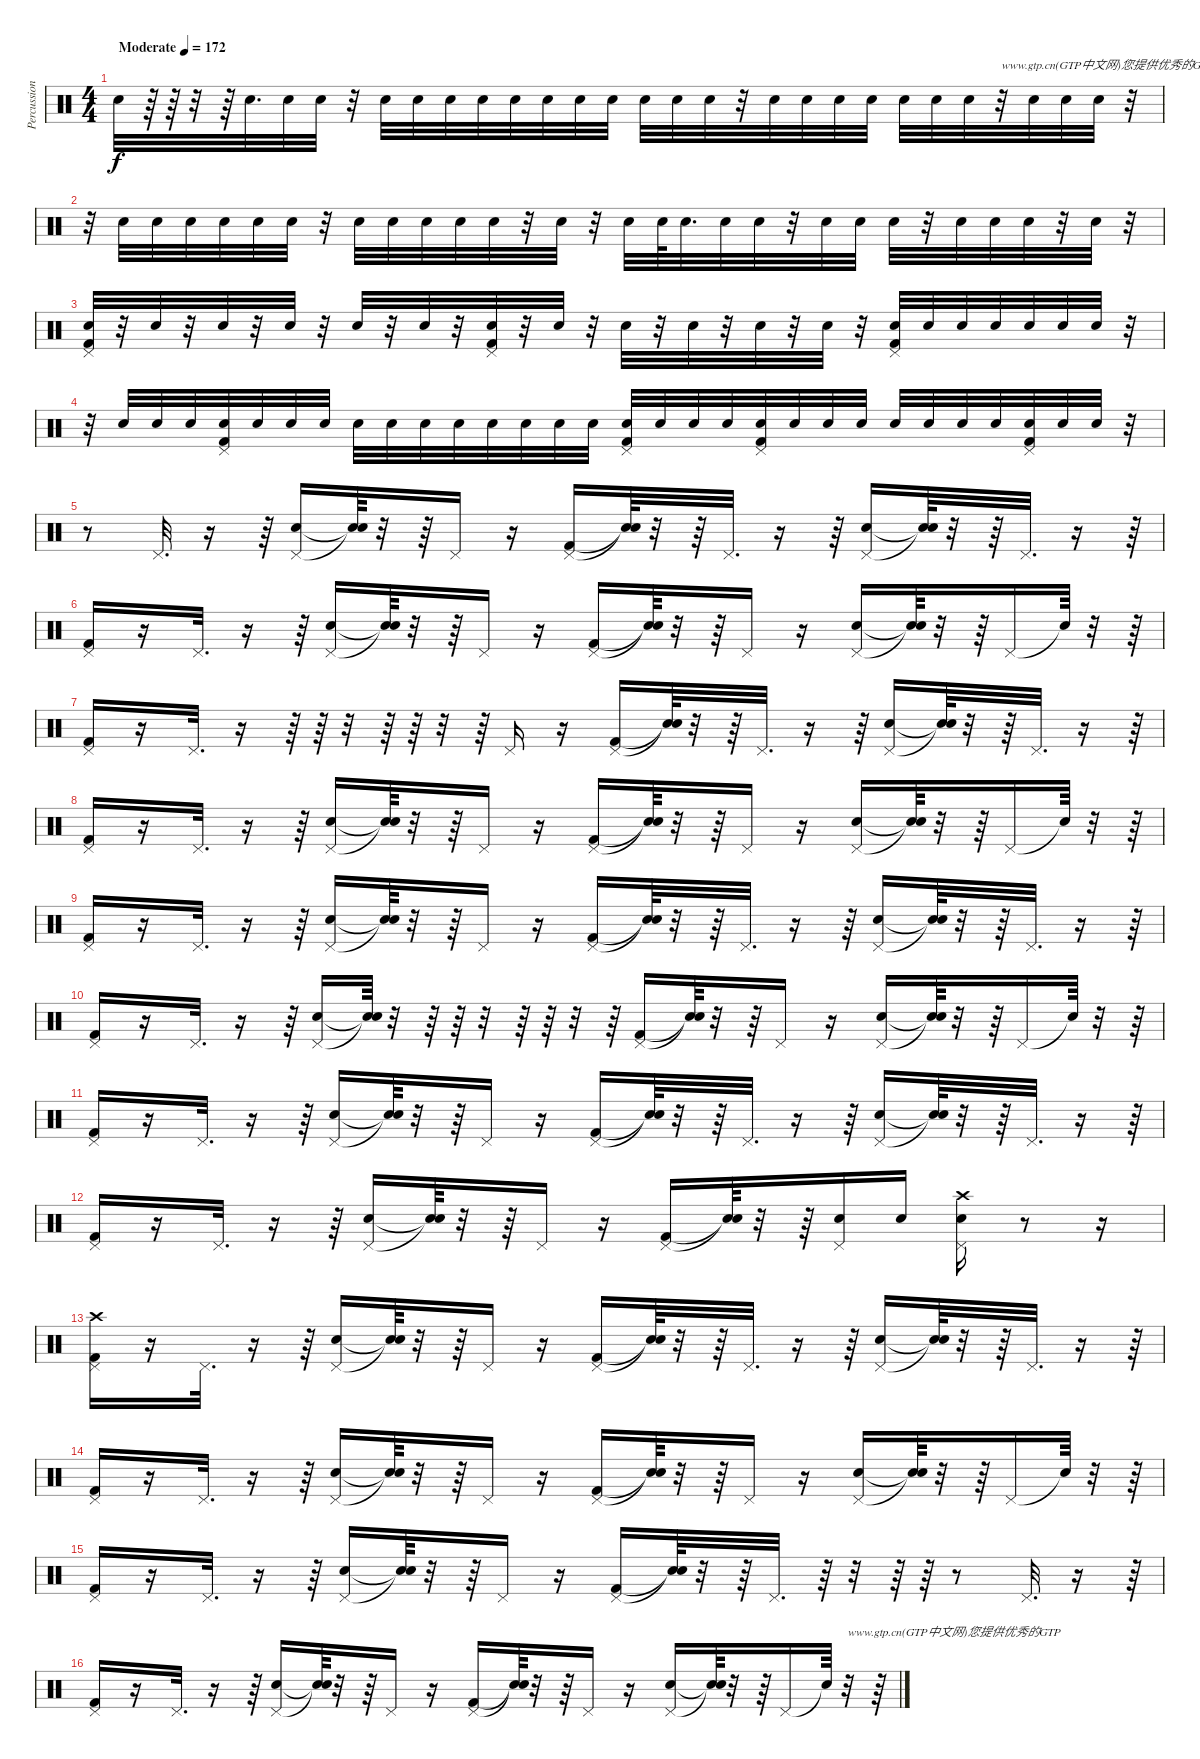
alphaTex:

\track ("Percussions" "Percussion") {instrument percussion}
\staff {score}
\articulation defaults
\ts (4 4)
\tempo (172 "Moderate")
\clef neutral
\ks c "Snare (hit) 2".32{dy f}
r.64 r.64 r.32 r.64 "Snare (hit) 2".32{d} "Snare (hit) 2".32 "Snare (hit) 2".32 r.32 "Snare (hit) 2".32 "Snare (hit) 2".32 "Snare (hit) 2".32 "Snare (hit) 2".32 "Snare (hit) 2".32 "Snare (hit) 2".32 "Snare (hit) 2".32 "Snare (hit) 2".32 "Snare (hit) 2".32 "Snare (hit) 2".32 "Snare (hit) 2".32 r.32 "Snare (hit) 2".32 "Snare (hit) 2".32 "Snare (hit) 2".32 "Snare (hit) 2".32 "Snare (hit) 2".32 "Snare (hit) 2".32 "Snare (hit) 2".32 r.32{txt "www.gtp.cn(GTP中文网)您提供优秀的GTP"} "Snare (hit) 2".32 "Snare (hit) 2".32 "Snare (hit) 2".32 r.32 |
r.32 "Snare (hit) 2".32 "Snare (hit) 2".32 "Snare (hit) 2".32 "Snare (hit) 2".32 "Snare (hit) 2".32 "Snare (hit) 2".32 r.32 "Snare (hit) 2".32 "Snare (hit) 2".32 "Snare (hit) 2".32 "Snare (hit) 2".32 "Snare (hit) 2".32 r.32 "Snare (hit) 2".32 r.32 "Snare (hit) 2".32 "Snare (hit) 2".64 "Snare (hit) 2".32{d} "Snare (hit) 2".32 "Snare (hit) 2".32 r.32 "Snare (hit) 2".32 "Snare (hit) 2".32 "Snare (hit) 2".32 r.32 "Snare (hit) 2".32 "Snare (hit) 2".32 "Snare (hit) 2".32 r.32 "Snare (hit) 2".32 r.32 |
("Snare (hit) 2" "Kick (hit) 2" "Pedal Hi-Hat (hit)").32 r.32 "Snare (hit) 2".32 r.32 "Snare (hit) 2".32 r.32 "Snare (hit) 2".32 r.32 "Snare (hit) 2".32 r.32 "Snare (hit) 2".32 r.32 ("Snare (hit) 2" "Kick (hit) 2" "Pedal Hi-Hat (hit)").32 r.32 "Snare (hit) 2".32 r.32 "Snare (hit) 2".32 r.32 "Snare (hit) 2".32 r.32 "Snare (hit) 2".32 r.32 "Snare (hit) 2".32 r.32 ("Snare (hit) 2" "Kick (hit) 2" "Pedal Hi-Hat (hit)").32 "Snare (hit) 2".32 "Snare (hit) 2".32 "Snare (hit) 2".32 "Snare (hit) 2".32 "Snare (hit) 2".32 "Snare (hit) 2".32 r.32 |
r.32 "Snare (hit) 2".32 "Snare (hit) 2".32 "Snare (hit) 2".32 ("Snare (hit) 2" "Kick (hit) 2" "Pedal Hi-Hat (hit)").32 "Snare (hit) 2".32 "Snare (hit) 2".32 "Snare (hit) 2".32 "Snare (hit) 2".32 "Snare (hit) 2".32 "Snare (hit) 2".32 "Snare (hit) 2".32 "Snare (hit) 2".32 "Snare (hit) 2".32 "Snare (hit) 2".32 "Snare (hit) 2".32 ("Snare (hit) 2" "Kick (hit) 2" "Pedal Hi-Hat (hit)").32 "Snare (hit) 2".32 "Snare (hit) 2".32 "Snare (hit) 2".32 ("Snare (hit) 2" "Kick (hit) 2" "Pedal Hi-Hat (hit)").32 "Snare (hit) 2".32 "Snare (hit) 2".32 "Snare (hit) 2".32 "Snare (hit) 2".32 "Snare (hit) 2".32 "Snare (hit) 2".32 "Snare (hit) 2".32 ("Snare (hit) 2" "Pedal Hi-Hat (hit)" "Kick (hit) 2").32 "Snare (hit) 2".32 "Snare (hit) 2".32 r.32 |
r.8 "Pedal Hi-Hat (hit)".32{d} r.16 r.64 ("Pedal Hi-Hat (hit)" "Snare (hit) 2").16 ("Snare (hit)"{t} "Snare (hit)"{t}).64 r.32 r.64 "Pedal Hi-Hat (hit)".16 r.16 ("Pedal Hi-Hat (hit)" "Kick (hit) 2").16 ("Snare (hit)"{t} "Snare (hit)"{t}).64 r.32 r.64 "Pedal Hi-Hat (hit)".32{d} r.16 r.64 ("Pedal Hi-Hat (hit)" "Snare (hit) 2").16 ("Snare (hit)"{t} "Snare (hit)"{t}).64 r.32 r.64 "Pedal Hi-Hat (hit)".32{d} r.16 r.64 |
("Pedal Hi-Hat (hit)" "Kick (hit) 2").16 r.16 "Pedal Hi-Hat (hit)".32{d} r.16 r.64 ("Pedal Hi-Hat (hit)" "Snare (hit) 2").16 ("Snare (hit)"{t} "Snare (hit)"{t}).64 r.32 r.64 "Pedal Hi-Hat (hit)".16 r.16 ("Pedal Hi-Hat (hit)" "Kick (hit) 2").16 ("Snare (hit)"{t} "Snare (hit)"{t}).64 r.32 r.64 "Pedal Hi-Hat (hit)".16 r.16 ("Pedal Hi-Hat (hit)" "Snare (hit) 2").16 ("Snare (hit)"{t} "Snare (hit)"{t}).64 r.32 r.64 "Pedal Hi-Hat (hit)".16 "Snare (hit)"{t}.64 r.32 r.64 |
("Pedal Hi-Hat (hit)" "Kick (hit) 2").16 r.16 "Pedal Hi-Hat (hit)".32{d} r.16 r.64 r.64 r.32 r.64 r.64 r.32 r.64 "Pedal Hi-Hat (hit)".16 r.16 ("Pedal Hi-Hat (hit)" "Kick (hit) 2").16 ("Snare (hit)"{t} "Snare (hit)"{t}).64 r.32 r.64 "Pedal Hi-Hat (hit)".32{d} r.16 r.64 ("Pedal Hi-Hat (hit)" "Snare (hit) 2").16 ("Snare (hit)"{t} "Snare (hit)"{t}).64 r.32 r.64 "Pedal Hi-Hat (hit)".32{d} r.16 r.64 |
("Pedal Hi-Hat (hit)" "Kick (hit) 2").16 r.16 "Pedal Hi-Hat (hit)".32{d} r.16 r.64 ("Pedal Hi-Hat (hit)" "Snare (hit) 2").16 ("Snare (hit)"{t} "Snare (hit)"{t}).64 r.32 r.64 "Pedal Hi-Hat (hit)".16 r.16 ("Pedal Hi-Hat (hit)" "Kick (hit) 2").16 ("Snare (hit)"{t} "Snare (hit)"{t}).64 r.32 r.64 "Pedal Hi-Hat (hit)".16 r.16 ("Pedal Hi-Hat (hit)" "Snare (hit) 2").16 ("Snare (hit)"{t} "Snare (hit)"{t}).64 r.32 r.64 "Pedal Hi-Hat (hit)".16 "Snare (hit)"{t}.64 r.32 r.64 |
("Pedal Hi-Hat (hit)" "Kick (hit) 2").16 r.16 "Pedal Hi-Hat (hit)".32{d} r.16 r.64 ("Pedal Hi-Hat (hit)" "Snare (hit) 2").16 ("Snare (hit)"{t} "Snare (hit)"{t}).64 r.32 r.64 "Pedal Hi-Hat (hit)".16 r.16 ("Pedal Hi-Hat (hit)" "Kick (hit) 2").16 ("Snare (hit)"{t} "Snare (hit)"{t}).64 r.32 r.64 "Pedal Hi-Hat (hit)".32{d} r.16 r.64 ("Pedal Hi-Hat (hit)" "Snare (hit) 2").16 ("Snare (hit)"{t} "Snare (hit)"{t}).64 r.32 r.64 "Pedal Hi-Hat (hit)".32{d} r.16 r.64 |
("Pedal Hi-Hat (hit)" "Kick (hit) 2").16 r.16 "Pedal Hi-Hat (hit)".32{d} r.16 r.64 ("Pedal Hi-Hat (hit)" "Snare (hit) 2").16 ("Snare (hit)"{t} "Snare (hit)"{t}).64 r.32 r.64 r.64 r.32 r.64 r.64 r.32 r.64 ("Pedal Hi-Hat (hit)" "Kick (hit) 2").16 ("Snare (hit)"{t} "Snare (hit)"{t}).64 r.32 r.64 "Pedal Hi-Hat (hit)".16 r.16 ("Pedal Hi-Hat (hit)" "Snare (hit) 2").16 ("Snare (hit)"{t} "Snare (hit)"{t}).64 r.32 r.64 "Pedal Hi-Hat (hit)".16 "Snare (hit)"{t}.64 r.32 r.64 |
("Pedal Hi-Hat (hit)" "Kick (hit) 2").16 r.16 "Pedal Hi-Hat (hit)".32{d} r.16 r.64 ("Pedal Hi-Hat (hit)" "Snare (hit) 2").16 ("Snare (hit)"{t} "Snare (hit)"{t}).64 r.32 r.64 "Pedal Hi-Hat (hit)".16 r.16 ("Pedal Hi-Hat (hit)" "Kick (hit) 2").16 ("Snare (hit)"{t} "Snare (hit)"{t}).64 r.32 r.64 "Pedal Hi-Hat (hit)".32{d} r.16 r.64 ("Pedal Hi-Hat (hit)" "Snare (hit) 2").16 ("Snare (hit)"{t} "Snare (hit)"{t}).64 r.32 r.64 "Pedal Hi-Hat (hit)".32{d} r.16 r.64 |
("Pedal Hi-Hat (hit)" "Kick (hit) 2").16 r.16 "Pedal Hi-Hat (hit)".32{d} r.16 r.64 ("Pedal Hi-Hat (hit)" "Snare (hit) 2").16 ("Snare (hit)"{t} "Snare (hit)"{t}).64 r.32 r.64 "Pedal Hi-Hat (hit)".16 r.16 ("Pedal Hi-Hat (hit)" "Kick (hit) 2").16 ("Snare (hit)"{t} "Snare (hit)"{t}).64 r.32 r.64 ("Pedal Hi-Hat (hit)" "Snare (hit) 2").16 "Snare (hit) 2".16 ("Crash high (hit)" "Pedal Hi-Hat (hit)" "Snare (hit) 2").16 r.8 r.16 |
("Pedal Hi-Hat (hit)" "Crash high (hit)" "Kick (hit) 2").16 r.16 "Pedal Hi-Hat (hit)".32{d} r.16 r.64 ("Pedal Hi-Hat (hit)" "Snare (hit) 2").16 ("Snare (hit)"{t} "Snare (hit)"{t}).64 r.32 r.64 "Pedal Hi-Hat (hit)".16 r.16 ("Pedal Hi-Hat (hit)" "Kick (hit) 2").16 ("Snare (hit)"{t} "Snare (hit)"{t}).64 r.32 r.64 "Pedal Hi-Hat (hit)".32{d} r.16 r.64 ("Pedal Hi-Hat (hit)" "Snare (hit) 2").16 ("Snare (hit)"{t} "Snare (hit)"{t}).64 r.32 r.64 "Pedal Hi-Hat (hit)".32{d} r.16 r.64 |
("Pedal Hi-Hat (hit)" "Kick (hit) 2").16 r.16 "Pedal Hi-Hat (hit)".32{d} r.16 r.64 ("Pedal Hi-Hat (hit)" "Snare (hit) 2").16 ("Snare (hit)"{t} "Snare (hit)"{t}).64 r.32 r.64 "Pedal Hi-Hat (hit)".16 r.16 ("Pedal Hi-Hat (hit)" "Kick (hit) 2").16 ("Snare (hit)"{t} "Snare (hit)"{t}).64 r.32 r.64 "Pedal Hi-Hat (hit)".16 r.16 ("Pedal Hi-Hat (hit)" "Snare (hit) 2").16 ("Snare (hit)"{t} "Snare (hit)"{t}).64 r.32 r.64 "Pedal Hi-Hat (hit)".16 "Snare (hit)"{t}.64 r.32 r.64 |
("Pedal Hi-Hat (hit)" "Kick (hit) 2").16 r.16 "Pedal Hi-Hat (hit)".32{d} r.16 r.64 ("Pedal Hi-Hat (hit)" "Snare (hit) 2").16 ("Snare (hit)"{t} "Snare (hit)"{t}).64 r.32 r.64 "Pedal Hi-Hat (hit)".16 r.16 ("Pedal Hi-Hat (hit)" "Kick (hit) 2").16 ("Snare (hit)"{t} "Snare (hit)"{t}).64 r.32 r.64 "Pedal Hi-Hat (hit)".32{d} r.64 r.32 r.64 r.64 r.8 "Pedal Hi-Hat (hit)".32{d} r.16 r.64 |
("Pedal Hi-Hat (hit)" "Kick (hit) 2").16 r.16 "Pedal Hi-Hat (hit)".32{d} r.16 r.64 ("Pedal Hi-Hat (hit)" "Snare (hit) 2").16 ("Snare (hit)"{t} "Snare (hit)"{t}).64 r.32 r.64 "Pedal Hi-Hat (hit)".16 r.16 ("Pedal Hi-Hat (hit)" "Kick (hit) 2").16 ("Snare (hit)"{t} "Snare (hit)"{t}).64 r.32 r.64 "Pedal Hi-Hat (hit)".16 r.16 ("Pedal Hi-Hat (hit)" "Snare (hit) 2").16 ("Snare (hit)"{t} "Snare (hit)"{t}).64 r.32 r.64 "Pedal Hi-Hat (hit)".16 "Snare (hit)"{t}.64 r.32{txt "www.gtp.cn(GTP中文网)您提供优秀的GTP"} r.64
